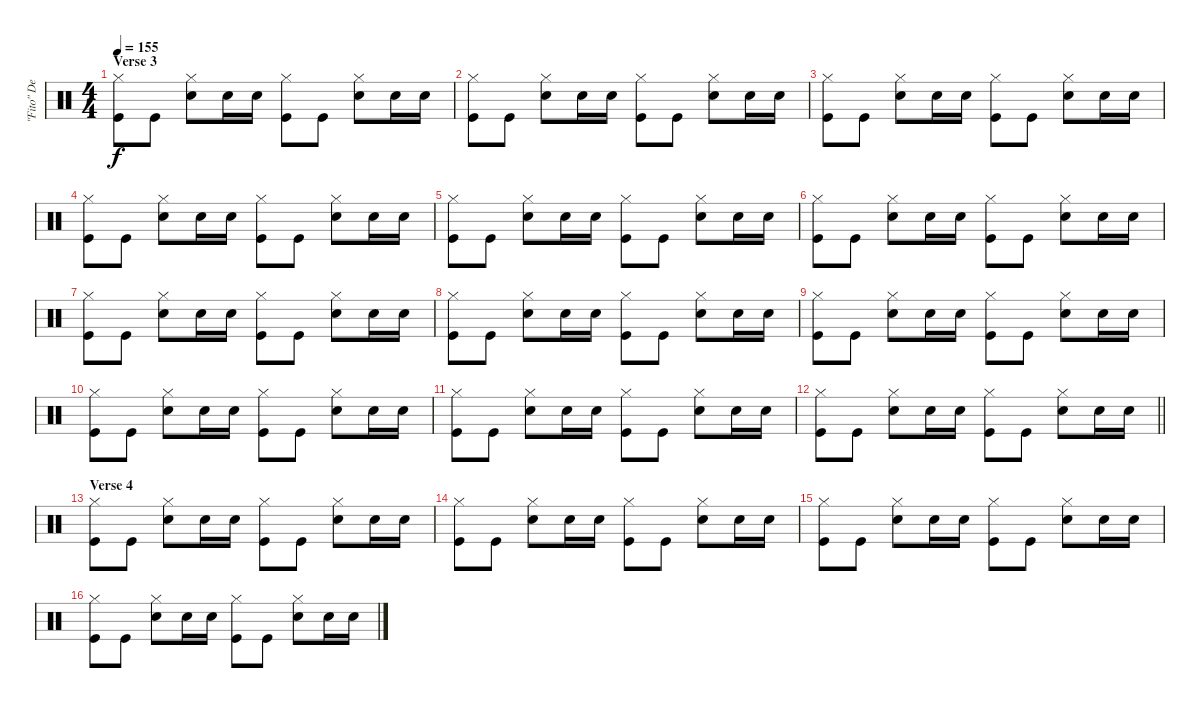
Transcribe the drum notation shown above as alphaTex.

\track ("\"Fito\" De La Parra" "\"Fito\" De ") {instrument percussion}
\staff {score}
\articulation defaults
\ts (4 4)
\section ("" "Verse 3")
\tempo 155
\clef neutral
\ks c
("Hi-Hat (closed)" "Kick (hit)").8{dy f} "Kick (hit)".8 ("Hi-Hat (closed)" "Snare (hit) 2").8 "Snare (hit) 2".16 "Snare (hit) 2".16 ("Hi-Hat (closed)" "Kick (hit)").8 "Kick (hit)".8 ("Hi-Hat (closed)" "Snare (hit) 2").8 "Snare (hit) 2".16 "Snare (hit) 2".16 |
("Hi-Hat (closed)" "Kick (hit)").8 "Kick (hit)".8 ("Hi-Hat (closed)" "Snare (hit) 2").8 "Snare (hit) 2".16 "Snare (hit) 2".16 ("Hi-Hat (closed)" "Kick (hit)").8 "Kick (hit)".8 ("Hi-Hat (closed)" "Snare (hit) 2").8 "Snare (hit) 2".16 "Snare (hit) 2".16 |
("Hi-Hat (closed)" "Kick (hit)").8 "Kick (hit)".8 ("Hi-Hat (closed)" "Snare (hit) 2").8 "Snare (hit) 2".16 "Snare (hit) 2".16 ("Hi-Hat (closed)" "Kick (hit)").8 "Kick (hit)".8 ("Hi-Hat (closed)" "Snare (hit) 2").8 "Snare (hit) 2".16 "Snare (hit) 2".16 |
("Hi-Hat (closed)" "Kick (hit)").8 "Kick (hit)".8 ("Hi-Hat (closed)" "Snare (hit) 2").8 "Snare (hit) 2".16 "Snare (hit) 2".16 ("Hi-Hat (closed)" "Kick (hit)").8 "Kick (hit)".8 ("Hi-Hat (closed)" "Snare (hit) 2").8 "Snare (hit) 2".16 "Snare (hit) 2".16 |
("Hi-Hat (closed)" "Kick (hit)").8 "Kick (hit)".8 ("Hi-Hat (closed)" "Snare (hit) 2").8 "Snare (hit) 2".16 "Snare (hit) 2".16 ("Hi-Hat (closed)" "Kick (hit)").8 "Kick (hit)".8 ("Hi-Hat (closed)" "Snare (hit) 2").8 "Snare (hit) 2".16 "Snare (hit) 2".16 |
("Hi-Hat (closed)" "Kick (hit)").8 "Kick (hit)".8 ("Hi-Hat (closed)" "Snare (hit) 2").8 "Snare (hit) 2".16 "Snare (hit) 2".16 ("Hi-Hat (closed)" "Kick (hit)").8 "Kick (hit)".8 ("Hi-Hat (closed)" "Snare (hit) 2").8 "Snare (hit) 2".16 "Snare (hit) 2".16 |
("Hi-Hat (closed)" "Kick (hit)").8 "Kick (hit)".8 ("Hi-Hat (closed)" "Snare (hit) 2").8 "Snare (hit) 2".16 "Snare (hit) 2".16 ("Hi-Hat (closed)" "Kick (hit)").8 "Kick (hit)".8 ("Hi-Hat (closed)" "Snare (hit) 2").8 "Snare (hit) 2".16 "Snare (hit) 2".16 |
("Hi-Hat (closed)" "Kick (hit)").8 "Kick (hit)".8 ("Hi-Hat (closed)" "Snare (hit) 2").8 "Snare (hit) 2".16 "Snare (hit) 2".16 ("Hi-Hat (closed)" "Kick (hit)").8 "Kick (hit)".8 ("Hi-Hat (closed)" "Snare (hit) 2").8 "Snare (hit) 2".16 "Snare (hit) 2".16 |
("Hi-Hat (closed)" "Kick (hit)").8 "Kick (hit)".8 ("Hi-Hat (closed)" "Snare (hit) 2").8 "Snare (hit) 2".16 "Snare (hit) 2".16 ("Hi-Hat (closed)" "Kick (hit)").8 "Kick (hit)".8 ("Hi-Hat (closed)" "Snare (hit) 2").8 "Snare (hit) 2".16 "Snare (hit) 2".16 |
("Hi-Hat (closed)" "Kick (hit)").8 "Kick (hit)".8 ("Hi-Hat (closed)" "Snare (hit) 2").8 "Snare (hit) 2".16 "Snare (hit) 2".16 ("Hi-Hat (closed)" "Kick (hit)").8 "Kick (hit)".8 ("Hi-Hat (closed)" "Snare (hit) 2").8 "Snare (hit) 2".16 "Snare (hit) 2".16 |
("Hi-Hat (closed)" "Kick (hit)").8 "Kick (hit)".8 ("Hi-Hat (closed)" "Snare (hit) 2").8 "Snare (hit) 2".16 "Snare (hit) 2".16 ("Hi-Hat (closed)" "Kick (hit)").8 "Kick (hit)".8 ("Hi-Hat (closed)" "Snare (hit) 2").8 "Snare (hit) 2".16 "Snare (hit) 2".16 |
\barLineRight lightlight
("Hi-Hat (closed)" "Kick (hit)").8 "Kick (hit)".8 ("Hi-Hat (closed)" "Snare (hit) 2").8 "Snare (hit) 2".16 "Snare (hit) 2".16 ("Hi-Hat (closed)" "Kick (hit)").8 "Kick (hit)".8 ("Hi-Hat (closed)" "Snare (hit) 2").8 "Snare (hit) 2".16 "Snare (hit) 2".16 |
\section ("" "Verse 4")
("Hi-Hat (closed)" "Kick (hit)").8 "Kick (hit)".8 ("Hi-Hat (closed)" "Snare (hit) 2").8 "Snare (hit) 2".16 "Snare (hit) 2".16 ("Hi-Hat (closed)" "Kick (hit)").8 "Kick (hit)".8 ("Hi-Hat (closed)" "Snare (hit) 2").8 "Snare (hit) 2".16 "Snare (hit) 2".16 |
("Hi-Hat (closed)" "Kick (hit)").8 "Kick (hit)".8 ("Hi-Hat (closed)" "Snare (hit) 2").8 "Snare (hit) 2".16 "Snare (hit) 2".16 ("Hi-Hat (closed)" "Kick (hit)").8 "Kick (hit)".8 ("Hi-Hat (closed)" "Snare (hit) 2").8 "Snare (hit) 2".16 "Snare (hit) 2".16 |
("Hi-Hat (closed)" "Kick (hit)").8 "Kick (hit)".8 ("Hi-Hat (closed)" "Snare (hit) 2").8 "Snare (hit) 2".16 "Snare (hit) 2".16 ("Hi-Hat (closed)" "Kick (hit)").8 "Kick (hit)".8 ("Hi-Hat (closed)" "Snare (hit) 2").8 "Snare (hit) 2".16 "Snare (hit) 2".16 |
("Hi-Hat (closed)" "Kick (hit)").8 "Kick (hit)".8 ("Hi-Hat (closed)" "Snare (hit) 2").8 "Snare (hit) 2".16 "Snare (hit) 2".16 ("Hi-Hat (closed)" "Kick (hit)").8 "Kick (hit)".8 ("Hi-Hat (closed)" "Snare (hit) 2").8 "Snare (hit) 2".16 "Snare (hit) 2".16
